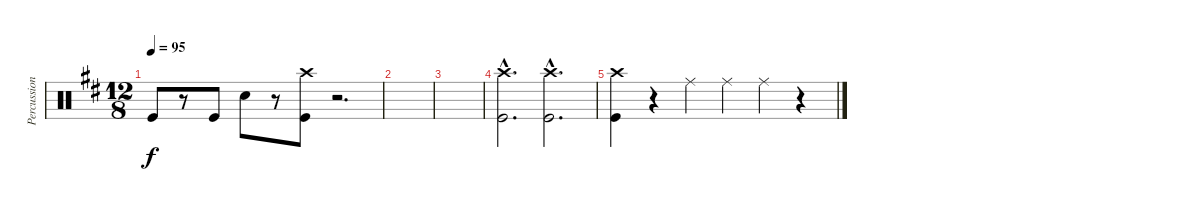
\track ("Percussion" "Percussion") {instrument percussion}
\staff {score}
\articulation defaults
\ts (12 8)
\tempo 95
\clef neutral
\ks d "Kick (hit)".8{dy f}
r.8 "Kick (hit)".8 "Snare (hit) 2".8 r.8 ("Crash high (hit)" "Kick (hit)").8 r.2{d} |
|
|
("Crash high (hit)"{hac} "Kick (hit)"{hac}).2{d} ("Crash high (hit)"{hac} "Kick (hit)"{hac}).2{d} |
("Crash high (hit)" "Kick (hit)").4 r.4 "Ride (middle)".4 "Ride (middle)".4 "Ride (middle)".4 r.4
